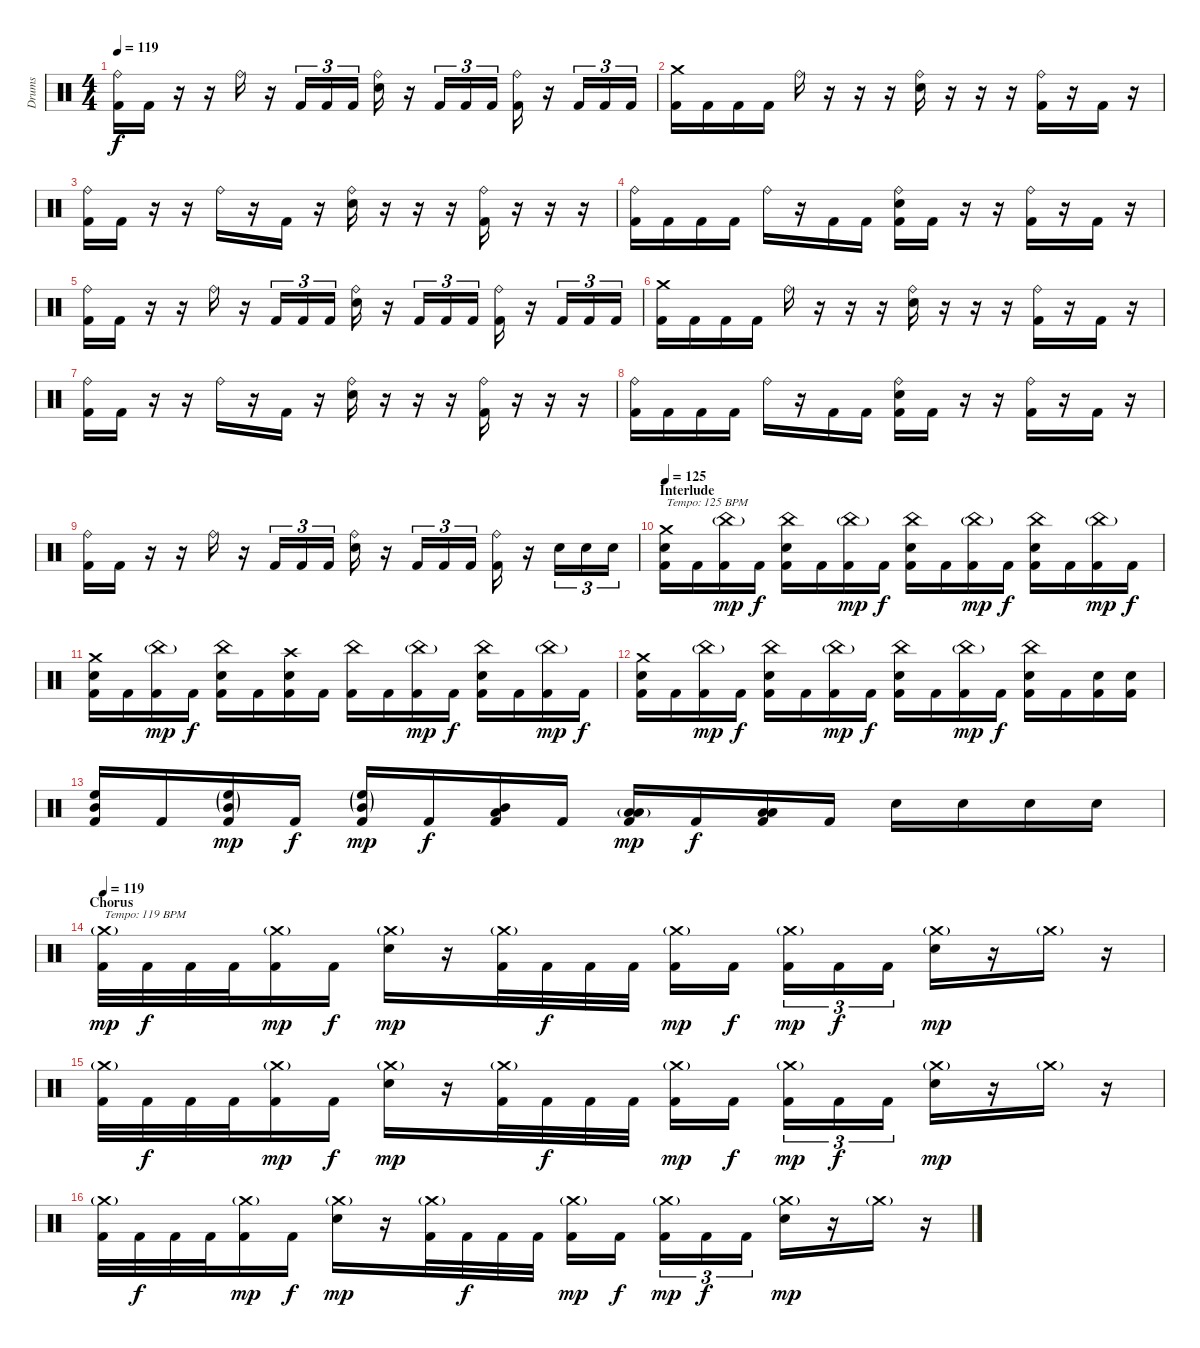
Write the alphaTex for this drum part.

\track ("Drums" "Drums") {instrument percussion}
\staff {score}
\articulation defaults
\ts (4 4)
\tempo 119
\clef neutral
\ks c
("Ride (bell)" "Kick (hit) 2").16{dy f} "Kick (hit) 2".16 r.16 r.16 "Ride (bell)".16 r.16 "Kick (hit) 2".16{tu (3 2)} "Kick (hit) 2".16{tu (3 2)} "Kick (hit) 2".16{tu (3 2)} ("Ride (bell)" "Electric Snare (hit)").16 r.16 "Kick (hit) 2".16{tu (3 2)} "Kick (hit) 2".16{tu (3 2)} "Kick (hit) 2".16{tu (3 2)} ("Ride (bell)" "Kick (hit) 2").16 r.16 "Kick (hit) 2".16{tu (3 2)} "Kick (hit) 2".16{tu (3 2)} "Kick (hit) 2".16{tu (3 2)} |
("Crash medium (hit)" "Kick (hit) 2").16 "Kick (hit) 2".16 "Kick (hit) 2".16 "Kick (hit) 2".16 "Ride (bell)".16 r.16 r.16 r.16 ("Ride (bell)" "Electric Snare (hit)").16 r.16 r.16 r.16 ("Ride (bell)" "Kick (hit) 2").16 r.16 "Kick (hit) 2".16 r.16 |
("Ride (bell)" "Kick (hit) 2").16 "Kick (hit) 2".16 r.16 r.16 "Ride (bell)".16 r.16 "Kick (hit) 2".16 r.16 ("Ride (bell)" "Electric Snare (hit)").16 r.16 r.16 r.16 ("Ride (bell)" "Kick (hit) 2").16 r.16 r.16 r.16 |
("Ride (bell)" "Kick (hit) 2").16 "Kick (hit) 2".16 "Kick (hit) 2".16 "Kick (hit) 2".16 "Ride (bell)".16 r.16 "Kick (hit) 2".16 "Kick (hit) 2".16 ("Ride (bell)" "Electric Snare (hit)" "Kick (hit) 2").16 "Kick (hit) 2".16 r.16 r.16 ("Ride (bell)" "Kick (hit) 2").16 r.16 "Kick (hit) 2".16 r.16 |
("Ride (bell)" "Kick (hit) 2").16 "Kick (hit) 2".16 r.16 r.16 "Ride (bell)".16 r.16 "Kick (hit) 2".16{tu (3 2)} "Kick (hit) 2".16{tu (3 2)} "Kick (hit) 2".16{tu (3 2)} ("Ride (bell)" "Electric Snare (hit)").16 r.16 "Kick (hit) 2".16{tu (3 2)} "Kick (hit) 2".16{tu (3 2)} "Kick (hit) 2".16{tu (3 2)} ("Ride (bell)" "Kick (hit) 2").16 r.16 "Kick (hit) 2".16{tu (3 2)} "Kick (hit) 2".16{tu (3 2)} "Kick (hit) 2".16{tu (3 2)} |
("Crash medium (hit)" "Kick (hit) 2").16 "Kick (hit) 2".16 "Kick (hit) 2".16 "Kick (hit) 2".16 "Ride (bell)".16 r.16 r.16 r.16 ("Ride (bell)" "Electric Snare (hit)").16 r.16 r.16 r.16 ("Ride (bell)" "Kick (hit) 2").16 r.16 "Kick (hit) 2".16 r.16 |
("Ride (bell)" "Kick (hit) 2").16 "Kick (hit) 2".16 r.16 r.16 "Ride (bell)".16 r.16 "Kick (hit) 2".16 r.16 ("Ride (bell)" "Electric Snare (hit)").16 r.16 r.16 r.16 ("Ride (bell)" "Kick (hit) 2").16 r.16 r.16 r.16 |
("Ride (bell)" "Kick (hit) 2").16 "Kick (hit) 2".16 "Kick (hit) 2".16 "Kick (hit) 2".16 "Ride (bell)".16 r.16 "Kick (hit) 2".16 "Kick (hit) 2".16 ("Ride (bell)" "Electric Snare (hit)" "Kick (hit) 2").16 "Kick (hit) 2".16 r.16 r.16 ("Ride (bell)" "Kick (hit) 2").16 r.16 "Kick (hit) 2".16 r.16 |
("Ride (bell)" "Kick (hit) 2").16 "Kick (hit) 2".16 r.16 r.16 "Ride (bell)".16 r.16 "Kick (hit) 2".16{tu (3 2)} "Kick (hit) 2".16{tu (3 2)} "Kick (hit) 2".16{tu (3 2)} ("Ride (bell)" "Electric Snare (hit)").16 r.16 "Kick (hit) 2".16{tu (3 2)} "Kick (hit) 2".16{tu (3 2)} "Kick (hit) 2".16{tu (3 2)} ("Ride (bell)" "Kick (hit) 2").16 r.16 "Electric Snare (hit)".16{tu (3 2)} "Electric Snare (hit)".16{tu (3 2)} "Electric Snare (hit)".16{tu (3 2)} |
\section ("" "Interlude")
\tempo 125
("Crash medium (hit)" "Electric Snare (hit)" "Kick (hit) 2").16{txt "Tempo: 125 BPM"} "Kick (hit) 2".16 ("China (hit)"{g} "Kick (hit) 2").16{dy mp} "Kick (hit) 2".16{dy f} ("China (hit)" "Electric Snare (hit)" "Kick (hit) 2").16 "Kick (hit) 2".16 ("China (hit)"{g} "Kick (hit) 2").16{dy mp} "Kick (hit) 2".16{dy f} ("China (hit)" "Electric Snare (hit)" "Kick (hit) 2").16 "Kick (hit) 2".16 ("China (hit)"{g} "Kick (hit) 2").16{dy mp} "Kick (hit) 2".16{dy f} ("China (hit)" "Electric Snare (hit)" "Kick (hit) 2").16 "Kick (hit) 2".16 ("China (hit)"{g} "Kick (hit) 2").16{dy mp} "Kick (hit) 2".16{dy f} |
("Crash medium (hit)" "Electric Snare (hit)" "Kick (hit) 2").16 "Kick (hit) 2".16 ("China (hit)"{g} "Kick (hit) 2").16{dy mp} "Kick (hit) 2".16{dy f} ("China (hit)" "Electric Snare (hit)" "Kick (hit) 2").16 "Kick (hit) 2".16 ("Crash high (hit)" "Electric Snare (hit)" "Kick (hit) 2").16 "Kick (hit) 2".16 ("China (hit)" "Kick (hit) 2").16 "Kick (hit) 2".16 ("China (hit)"{g} "Kick (hit) 2").16{dy mp} "Kick (hit) 2".16{dy f} ("China (hit)" "Electric Snare (hit)" "Kick (hit) 2").16 "Kick (hit) 2".16 ("China (hit)"{g} "Kick (hit) 2").16{dy mp} "Kick (hit) 2".16{dy f} |
("Crash medium (hit)" "Electric Snare (hit)" "Kick (hit) 2").16 "Kick (hit) 2".16 ("China (hit)"{g} "Kick (hit) 2").16{dy mp} "Kick (hit) 2".16{dy f} ("China (hit)" "Electric Snare (hit)" "Kick (hit) 2").16 "Kick (hit) 2".16 ("China (hit)"{g} "Kick (hit) 2").16{dy mp} "Kick (hit) 2".16{dy f} ("China (hit)" "Electric Snare (hit)" "Kick (hit) 2").16 "Kick (hit) 2".16 ("China (hit)"{g} "Kick (hit) 2").16{dy mp} "Kick (hit) 2".16{dy f} ("China (hit)" "Electric Snare (hit)" "Kick (hit) 2").16 "Kick (hit) 2".16 ("Electric Snare (hit)" "Kick (hit) 2").16 ("Electric Snare (hit)" "Kick (hit) 2").16 |
("High Floor Tom (hit)" "Mid Tom (hit)" "Kick (hit) 2").16 "Kick (hit) 2".16 ("High Floor Tom (hit)"{g} "Mid Tom (hit)"{g} "Kick (hit) 2").16{dy mp} "Kick (hit) 2".16{dy f} ("High Floor Tom (hit)"{g} "Mid Tom (hit)"{g} "Kick (hit) 2").16{dy mp} "Kick (hit) 2".16{dy f} ("Mid Tom (hit)" "Low Tom (hit)" "Kick (hit) 2").16 "Kick (hit) 2".16 ("Low Tom (hit)"{g} "Low Floor Tom (hit)"{g} "Kick (hit) 2").16{dy mp} "Kick (hit) 2".16{dy f} ("Low Tom (hit)" "Low Floor Tom (hit)" "Kick (hit) 2").16 "Kick (hit) 2".16 "Electric Snare (hit)".16 "Electric Snare (hit)".16 "Electric Snare (hit)".16 "Electric Snare (hit)".16 |
\section ("" "Chorus")
\tempo 119
("Crash medium (hit)"{g} "Kick (hit) 2").32{txt "Tempo: 119 BPM" dy mp} "Kick (hit) 2".32{dy f} "Kick (hit) 2".32 "Kick (hit) 2".32 ("Crash medium (hit)"{g} "Kick (hit) 2").16{dy mp} "Kick (hit) 2".16{dy f} ("Crash medium (hit)"{g} "Electric Snare (hit)").16{dy mp} r.16 ("Crash medium (hit)"{g} "Kick (hit) 2").32 "Kick (hit) 2".32{dy f} "Kick (hit) 2".32 "Kick (hit) 2".32 ("Crash medium (hit)"{g} "Kick (hit) 2").16{dy mp} "Kick (hit) 2".16{dy f} ("Crash medium (hit)"{g} "Kick (hit) 2").16{tu (3 2) dy mp} "Kick (hit) 2".16{tu (3 2) dy f} "Kick (hit) 2".16{tu (3 2)} ("Crash medium (hit)"{g} "Electric Snare (hit)").16{dy mp} r.16 "Crash medium (hit)"{g}.16 r.16 |
("Crash medium (hit)"{g} "Kick (hit) 2").32 "Kick (hit) 2".32{dy f} "Kick (hit) 2".32 "Kick (hit) 2".32 ("Crash medium (hit)"{g} "Kick (hit) 2").16{dy mp} "Kick (hit) 2".16{dy f} ("Crash medium (hit)"{g} "Electric Snare (hit)").16{dy mp} r.16 ("Crash medium (hit)"{g} "Kick (hit) 2").32 "Kick (hit) 2".32{dy f} "Kick (hit) 2".32 "Kick (hit) 2".32 ("Crash medium (hit)"{g} "Kick (hit) 2").16{dy mp} "Kick (hit) 2".16{dy f} ("Crash medium (hit)"{g} "Kick (hit) 2").16{tu (3 2) dy mp} "Kick (hit) 2".16{tu (3 2) dy f} "Kick (hit) 2".16{tu (3 2)} ("Crash medium (hit)"{g} "Electric Snare (hit)").16{dy mp} r.16 "Crash medium (hit)"{g}.16 r.16 |
("Crash medium (hit)"{g} "Kick (hit) 2").32 "Kick (hit) 2".32{dy f} "Kick (hit) 2".32 "Kick (hit) 2".32 ("Crash medium (hit)"{g} "Kick (hit) 2").16{dy mp} "Kick (hit) 2".16{dy f} ("Crash medium (hit)"{g} "Electric Snare (hit)").16{dy mp} r.16 ("Crash medium (hit)"{g} "Kick (hit) 2").32 "Kick (hit) 2".32{dy f} "Kick (hit) 2".32 "Kick (hit) 2".32 ("Crash medium (hit)"{g} "Kick (hit) 2").16{dy mp} "Kick (hit) 2".16{dy f} ("Crash medium (hit)"{g} "Kick (hit) 2").16{tu (3 2) dy mp} "Kick (hit) 2".16{tu (3 2) dy f} "Kick (hit) 2".16{tu (3 2)} ("Crash medium (hit)"{g} "Electric Snare (hit)").16{dy mp} r.16 "Crash medium (hit)"{g}.16 r.16
